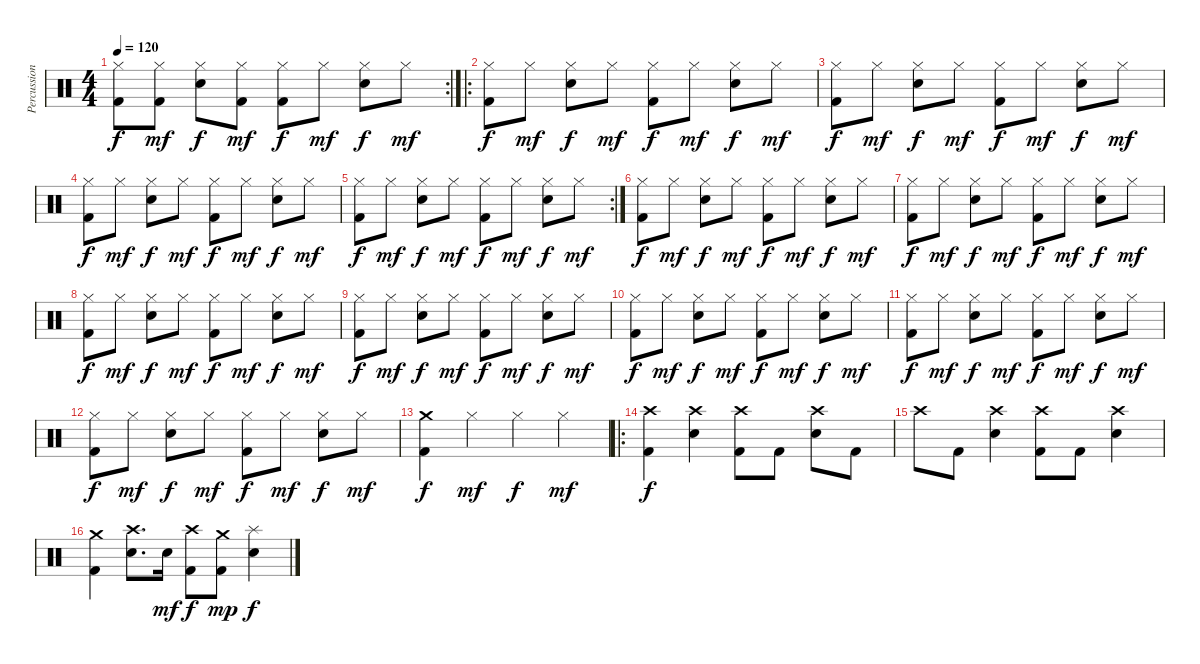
\track ("Percussion" "Percussion") {instrument percussion}
\staff {score}
\articulation defaults
\rc 2
\ts (4 4)
\tempo 120
\clef neutral
\ks c
("Hi-Hat (closed)" "Kick (hit) 2").8{dy f} ("Hi-Hat (closed)" "Kick (hit) 2").8{dy mf} ("Hi-Hat (closed)" "Electric Snare (hit)").8{dy f} ("Hi-Hat (closed)" "Kick (hit) 2").8{dy mf} ("Hi-Hat (closed)" "Kick (hit) 2").8{dy f} "Hi-Hat (closed)".8{dy mf} ("Hi-Hat (closed)" "Electric Snare (hit)").8{dy f} "Hi-Hat (closed)".8{dy mf} |
\ro
("Hi-Hat (closed)" "Kick (hit) 2").8{dy f} "Hi-Hat (closed)".8{dy mf} ("Hi-Hat (closed)" "Electric Snare (hit)").8{dy f} "Hi-Hat (closed)".8{dy mf} ("Hi-Hat (closed)" "Kick (hit) 2").8{dy f} "Hi-Hat (closed)".8{dy mf} ("Hi-Hat (closed)" "Electric Snare (hit)").8{dy f} "Hi-Hat (closed)".8{dy mf} |
("Hi-Hat (closed)" "Kick (hit) 2").8{dy f} "Hi-Hat (closed)".8{dy mf} ("Hi-Hat (closed)" "Electric Snare (hit)").8{dy f} "Hi-Hat (closed)".8{dy mf} ("Hi-Hat (closed)" "Kick (hit) 2").8{dy f} "Hi-Hat (closed)".8{dy mf} ("Hi-Hat (closed)" "Electric Snare (hit)").8{dy f} "Hi-Hat (closed)".8{dy mf} |
("Hi-Hat (closed)" "Kick (hit) 2").8{dy f} "Hi-Hat (closed)".8{dy mf} ("Hi-Hat (closed)" "Electric Snare (hit)").8{dy f} "Hi-Hat (closed)".8{dy mf} ("Hi-Hat (closed)" "Kick (hit) 2").8{dy f} "Hi-Hat (closed)".8{dy mf} ("Hi-Hat (closed)" "Electric Snare (hit)").8{dy f} "Hi-Hat (closed)".8{dy mf} |
\rc 2
("Hi-Hat (closed)" "Kick (hit) 2").8{dy f} "Hi-Hat (closed)".8{dy mf} ("Hi-Hat (closed)" "Electric Snare (hit)").8{dy f} "Hi-Hat (closed)".8{dy mf} ("Hi-Hat (closed)" "Kick (hit) 2").8{dy f} "Hi-Hat (closed)".8{dy mf} ("Hi-Hat (closed)" "Electric Snare (hit)").8{dy f} "Hi-Hat (closed)".8{dy mf} |
("Hi-Hat (closed)" "Kick (hit) 2").8{dy f} "Hi-Hat (closed)".8{dy mf} ("Hi-Hat (closed)" "Electric Snare (hit)").8{dy f} "Hi-Hat (closed)".8{dy mf} ("Hi-Hat (closed)" "Kick (hit) 2").8{dy f} "Hi-Hat (closed)".8{dy mf} ("Hi-Hat (closed)" "Electric Snare (hit)").8{dy f} "Hi-Hat (closed)".8{dy mf} |
("Hi-Hat (closed)" "Kick (hit) 2").8{dy f} "Hi-Hat (closed)".8{dy mf} ("Hi-Hat (closed)" "Electric Snare (hit)").8{dy f} "Hi-Hat (closed)".8{dy mf} ("Hi-Hat (closed)" "Kick (hit) 2").8{dy f} "Hi-Hat (closed)".8{dy mf} ("Hi-Hat (closed)" "Electric Snare (hit)").8{dy f} "Hi-Hat (closed)".8{dy mf} |
("Hi-Hat (closed)" "Kick (hit) 2").8{dy f} "Hi-Hat (closed)".8{dy mf} ("Hi-Hat (closed)" "Electric Snare (hit)").8{dy f} "Hi-Hat (closed)".8{dy mf} ("Hi-Hat (closed)" "Kick (hit) 2").8{dy f} "Hi-Hat (closed)".8{dy mf} ("Hi-Hat (closed)" "Electric Snare (hit)").8{dy f} "Hi-Hat (closed)".8{dy mf} |
("Hi-Hat (closed)" "Kick (hit) 2").8{dy f} "Hi-Hat (closed)".8{dy mf} ("Hi-Hat (closed)" "Electric Snare (hit)").8{dy f} "Hi-Hat (closed)".8{dy mf} ("Hi-Hat (closed)" "Kick (hit) 2").8{dy f} "Hi-Hat (closed)".8{dy mf} ("Hi-Hat (closed)" "Electric Snare (hit)").8{dy f} "Hi-Hat (closed)".8{dy mf} |
("Hi-Hat (closed)" "Kick (hit) 2").8{dy f} "Hi-Hat (closed)".8{dy mf} ("Hi-Hat (closed)" "Electric Snare (hit)").8{dy f} "Hi-Hat (closed)".8{dy mf} ("Hi-Hat (closed)" "Kick (hit) 2").8{dy f} "Hi-Hat (closed)".8{dy mf} ("Hi-Hat (closed)" "Electric Snare (hit)").8{dy f} "Hi-Hat (closed)".8{dy mf} |
("Hi-Hat (closed)" "Kick (hit) 2").8{dy f} "Hi-Hat (closed)".8{dy mf} ("Hi-Hat (closed)" "Electric Snare (hit)").8{dy f} "Hi-Hat (closed)".8{dy mf} ("Hi-Hat (closed)" "Kick (hit) 2").8{dy f} "Hi-Hat (closed)".8{dy mf} ("Hi-Hat (closed)" "Electric Snare (hit)").8{dy f} "Hi-Hat (closed)".8{dy mf} |
("Hi-Hat (closed)" "Kick (hit) 2").8{dy f} "Hi-Hat (closed)".8{dy mf} ("Hi-Hat (closed)" "Electric Snare (hit)").8{dy f} "Hi-Hat (closed)".8{dy mf} ("Hi-Hat (closed)" "Kick (hit) 2").8{dy f} "Hi-Hat (closed)".8{dy mf} ("Hi-Hat (closed)" "Electric Snare (hit)").8{dy f} "Hi-Hat (closed)".8{dy mf} |
("Crash medium (hit)" "Kick (hit) 2").4{dy f} "Hi-Hat (closed)".4{dy mf} "Hi-Hat (closed)".4{dy f} "Hi-Hat (closed)".4{dy mf} |
\ro
("Crash high (hit)" "Kick (hit) 2").4{dy f} ("Crash high (hit)" "Electric Snare (hit)").4 ("Crash high (hit)" "Kick (hit) 2").8 "Kick (hit) 2".8 ("Crash high (hit)" "Electric Snare (hit)").8 "Kick (hit) 2".8 |
"Crash high (hit)".8 "Kick (hit) 2".8 ("Crash high (hit)" "Electric Snare (hit)").4 ("Crash high (hit)" "Kick (hit) 2").8 "Kick (hit) 2".8 ("Crash high (hit)" "Electric Snare (hit)").4 |
("Crash medium (hit)" "Kick (hit) 2").4 ("Crash high (hit)" "Electric Snare (hit)").8{d} "Electric Snare (hit)".16{dy mf} ("Crash high (hit)" "Kick (hit) 2").8{dy f} ("Crash medium (hit)" "Kick (hit) 2").8{dy mp} ("Splash (hit)" "Electric Snare (hit)").4{dy f}
